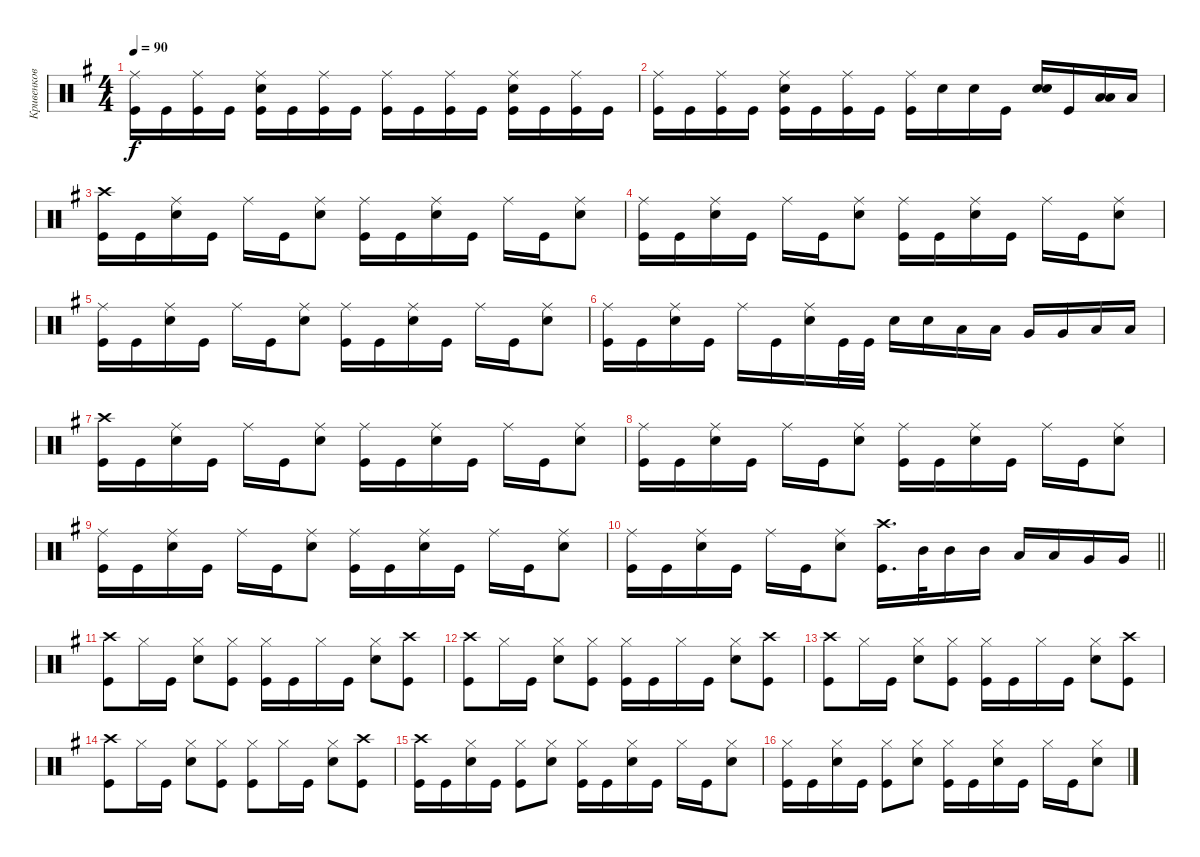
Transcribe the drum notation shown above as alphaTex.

\track ("Кривенков" "Кривенков") {instrument percussion}
\staff {score}
\articulation defaults
\ts (4 4)
\tempo 90
\clef neutral
\ks eminor
("Kick (hit)" "Ride (middle)").16{dy f} "Kick (hit)".16 ("Kick (hit)" "Ride (middle)").16 "Kick (hit)".16 ("Kick (hit)" "Ride (middle)" "Snare (hit) 2").16 "Kick (hit)".16 ("Kick (hit)" "Ride (middle)").16 "Kick (hit)".16 ("Kick (hit)" "Ride (middle)").16 "Kick (hit)".16 ("Kick (hit)" "Ride (middle)").16 "Kick (hit)".16 ("Kick (hit)" "Ride (middle)" "Snare (hit) 2").16 "Kick (hit)".16 ("Kick (hit)" "Ride (middle)").16 "Kick (hit)".16 |
("Kick (hit)" "Ride (middle)").16 "Kick (hit)".16 ("Kick (hit)" "Ride (middle)").16 "Kick (hit)".16 ("Kick (hit)" "Ride (middle)" "Snare (hit) 2").16 "Kick (hit)".16 ("Kick (hit)" "Ride (middle)").16 "Kick (hit)".16 ("Kick (hit)" "Ride (middle)").16 "Snare (hit) 2".16 "Snare (hit) 2".16 "Kick (hit)".16 ("Snare (hit) 2" "Snare (hit) 2").16{bd 480} "Kick (hit)".16 ("Low Tom (hit)" "Low Tom (hit)").16{bd 480} "Low Tom (hit)".16 |
("Kick (hit)" "Crash high (hit)").16 "Kick (hit)".16 ("Snare (hit) 2" "Ride (middle)").16 "Kick (hit)".16 "Ride (middle)".16 "Kick (hit)".16 ("Ride (middle)" "Snare (hit) 2").8 ("Kick (hit)" "Ride (middle)").16 "Kick (hit)".16 ("Snare (hit) 2" "Ride (middle)").16 "Kick (hit)".16 "Ride (middle)".16 "Kick (hit)".16 ("Ride (middle)" "Snare (hit) 2").8 |
("Kick (hit)" "Ride (middle)").16 "Kick (hit)".16 ("Snare (hit) 2" "Ride (middle)").16 "Kick (hit)".16 "Ride (middle)".16 "Kick (hit)".16 ("Ride (middle)" "Snare (hit) 2").8 ("Kick (hit)" "Ride (middle)").16 "Kick (hit)".16 ("Snare (hit) 2" "Ride (middle)").16 "Kick (hit)".16 "Ride (middle)".16 "Kick (hit)".16 ("Ride (middle)" "Snare (hit) 2").8 |
("Kick (hit)" "Ride (middle)").16 "Kick (hit)".16 ("Snare (hit) 2" "Ride (middle)").16 "Kick (hit)".16 "Ride (middle)".16 "Kick (hit)".16 ("Ride (middle)" "Snare (hit) 2").8 ("Kick (hit)" "Ride (middle)").16 "Kick (hit)".16 ("Snare (hit) 2" "Ride (middle)").16 "Kick (hit)".16 "Ride (middle)".16 "Kick (hit)".16 ("Ride (middle)" "Snare (hit) 2").8 |
("Kick (hit)" "Ride (middle)").16 "Kick (hit)".16 ("Snare (hit) 2" "Ride (middle)").16 "Kick (hit)".16 "Ride (middle)".16 "Kick (hit)".16 ("Ride (middle)" "Snare (hit) 2").16 "Kick (hit)".32 "Kick (hit)".32 "Snare (hit) 2".16 "Snare (hit) 2".16 "Low Tom (hit)".16 "Low Tom (hit)".16 "Very Low Tom (hit)".16 "Very Low Tom (hit)".16 "Low Floor Tom (hit)".16 "Low Floor Tom (hit)".16 |
("Kick (hit)" "Crash high (hit)").16 "Kick (hit)".16 ("Snare (hit) 2" "Ride (middle)").16 "Kick (hit)".16 "Ride (middle)".16 "Kick (hit)".16 ("Ride (middle)" "Snare (hit) 2").8 ("Kick (hit)" "Ride (middle)").16 "Kick (hit)".16 ("Snare (hit) 2" "Ride (middle)").16 "Kick (hit)".16 "Ride (middle)".16 "Kick (hit)".16 ("Ride (middle)" "Snare (hit) 2").8 |
("Kick (hit)" "Ride (middle)").16 "Kick (hit)".16 ("Snare (hit) 2" "Ride (middle)").16 "Kick (hit)".16 "Ride (middle)".16 "Kick (hit)".16 ("Ride (middle)" "Snare (hit) 2").8 ("Kick (hit)" "Ride (middle)").16 "Kick (hit)".16 ("Snare (hit) 2" "Ride (middle)").16 "Kick (hit)".16 "Ride (middle)".16 "Kick (hit)".16 ("Ride (middle)" "Snare (hit) 2").8 |
("Kick (hit)" "Ride (middle)").16 "Kick (hit)".16 ("Snare (hit) 2" "Ride (middle)").16 "Kick (hit)".16 "Ride (middle)".16 "Kick (hit)".16 ("Ride (middle)" "Snare (hit) 2").8 ("Kick (hit)" "Ride (middle)").16 "Kick (hit)".16 ("Snare (hit) 2" "Ride (middle)").16 "Kick (hit)".16 "Ride (middle)".16 "Kick (hit)".16 ("Ride (middle)" "Snare (hit) 2").8 |
\barLineRight lightlight
("Kick (hit)" "Ride (middle)").16 "Kick (hit)".16 ("Snare (hit) 2" "Ride (middle)").16 "Kick (hit)".16 "Ride (middle)".16 "Kick (hit)".16 ("Ride (middle)" "Snare (hit) 2").8 ("Crash high (hit)" "Kick (hit)").16{d} "Mid Tom (hit)".32 "Mid Tom (hit)".16 "Mid Tom (hit)".16 "Low Tom (hit)".16 "Low Tom (hit)".16 "Very Low Tom (hit)".16 "Very Low Tom (hit)".16 |
("Kick (hit)" "Crash high (hit)").8 "Hi-Hat (closed)".16 "Kick (hit)".16 ("Hi-Hat (closed)" "Snare (hit) 2").8 ("Hi-Hat (closed)" "Kick (hit)").8 ("Hi-Hat (closed)" "Kick (hit)").16 "Kick (hit)".16 "Hi-Hat (closed)".16 "Kick (hit)".16 ("Hi-Hat (closed)" "Snare (hit) 2").8 ("Crash high (hit)" "Kick (hit)").8 |
("Kick (hit)" "Crash high (hit)").8 "Hi-Hat (closed)".16 "Kick (hit)".16 ("Hi-Hat (closed)" "Snare (hit) 2").8 ("Hi-Hat (closed)" "Kick (hit)").8 ("Hi-Hat (closed)" "Kick (hit)").16 "Kick (hit)".16 "Hi-Hat (closed)".16 "Kick (hit)".16 ("Hi-Hat (closed)" "Snare (hit) 2").8 ("Crash high (hit)" "Kick (hit)").8 |
("Kick (hit)" "Crash high (hit)").8 "Hi-Hat (closed)".16 "Kick (hit)".16 ("Hi-Hat (closed)" "Snare (hit) 2").8 ("Hi-Hat (closed)" "Kick (hit)").8 ("Hi-Hat (closed)" "Kick (hit)").16 "Kick (hit)".16 "Hi-Hat (closed)".16 "Kick (hit)".16 ("Hi-Hat (closed)" "Snare (hit) 2").8 ("Crash high (hit)" "Kick (hit)").8 |
("Kick (hit)" "Crash high (hit)").8 "Hi-Hat (closed)".16 "Kick (hit)".16 ("Hi-Hat (closed)" "Snare (hit) 2").8 ("Hi-Hat (closed)" "Kick (hit)").8 ("Hi-Hat (closed)" "Kick (hit)").8 "Hi-Hat (closed)".16 "Kick (hit)".16 ("Hi-Hat (closed)" "Snare (hit) 2").8 ("Crash high (hit)" "Kick (hit)").8 |
("Kick (hit)" "Crash high (hit)").16 "Kick (hit)".16 ("Snare (hit) 2" "Hi-Hat (closed)").16 "Kick (hit)".16 ("Kick (hit)" "Hi-Hat (closed)").8 ("Snare (hit) 2" "Hi-Hat (closed)").8 ("Kick (hit)" "Hi-Hat (closed)").16 "Kick (hit)".16 ("Snare (hit) 2" "Hi-Hat (closed)").16 "Kick (hit)".16 "Hi-Hat (closed)".16 "Kick (hit)".16 ("Snare (hit) 2" "Hi-Hat (closed)").8 |
("Kick (hit)" "Hi-Hat (closed)").16 "Kick (hit)".16 ("Snare (hit) 2" "Hi-Hat (closed)").16 "Kick (hit)".16 ("Kick (hit)" "Hi-Hat (closed)").8 ("Snare (hit) 2" "Hi-Hat (closed)").8 ("Kick (hit)" "Hi-Hat (closed)").16 "Kick (hit)".16 ("Snare (hit) 2" "Hi-Hat (closed)").16 "Kick (hit)".16 "Hi-Hat (closed)".16 "Kick (hit)".16 ("Snare (hit) 2" "Hi-Hat (closed)").8
